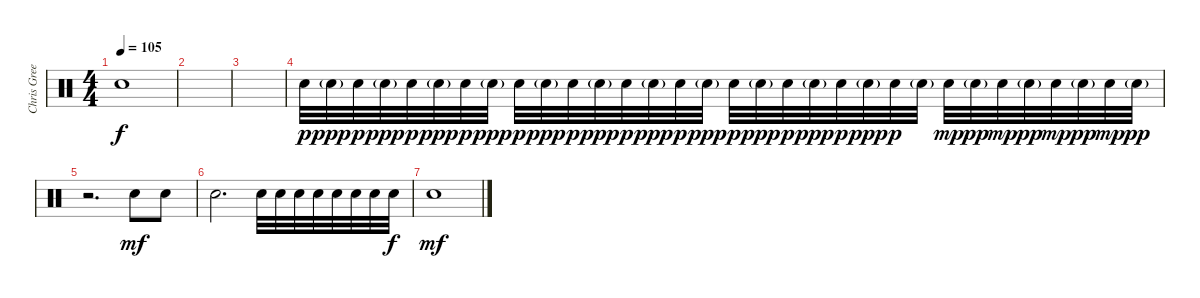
\track ("Chris Greene" "Chris Gree") {instrument percussion}
\staff {score}
\articulation defaults
\ts (4 4)
\tempo 105
\clef neutral
\ks c "Electric Snare (hit)".1{dy f}
|
|
|
"Electric Snare (hit)".32{dy p} "Electric Snare (hit)"{g}.32{dy ppp} "Electric Snare (hit)".32{dy p} "Electric Snare (hit)"{g}.32{dy ppp} "Electric Snare (hit)".32{dy p} "Electric Snare (hit)"{g}.32{dy ppp} "Electric Snare (hit)".32{dy p} "Electric Snare (hit)"{g}.32{dy ppp} "Electric Snare (hit)".32{dy p} "Electric Snare (hit)"{g}.32{dy ppp} "Electric Snare (hit)".32{dy p} "Electric Snare (hit)"{g}.32{dy ppp} "Electric Snare (hit)".32{dy p} "Electric Snare (hit)"{g}.32{dy ppp} "Electric Snare (hit)".32{dy p} "Electric Snare (hit)"{g}.32{dy ppp} "Electric Snare (hit)".32{dy p} "Electric Snare (hit)"{g}.32{dy ppp} "Electric Snare (hit)".32{dy p} "Electric Snare (hit)"{g}.32{dy ppp} "Electric Snare (hit)".32{dy p} "Electric Snare (hit)"{g}.32{dy ppp} "Electric Snare (hit)".32{dy p} "Electric Snare (hit)"{g}.32 "Electric Snare (hit)".32{dy mp} "Electric Snare (hit)"{g}.32{dy pp} "Electric Snare (hit)".32{dy mp} "Electric Snare (hit)"{g}.32{dy pp} "Electric Snare (hit)".32{dy mp} "Electric Snare (hit)"{g}.32{dy pp} "Electric Snare (hit)".32{dy mp} "Electric Snare (hit)"{g}.32{dy pp} |
r.2{d} "Electric Snare (hit)".8{dy mf} "Electric Snare (hit)".8 |
"Electric Snare (hit)".2{d} "Electric Snare (hit)".32 "Electric Snare (hit)".32 "Electric Snare (hit)".32 "Electric Snare (hit)".32 "Electric Snare (hit)".32 "Electric Snare (hit)".32 "Electric Snare (hit)".32 "Electric Snare (hit)".32{dy f} |
"Electric Snare (hit)".1{dy mf}
